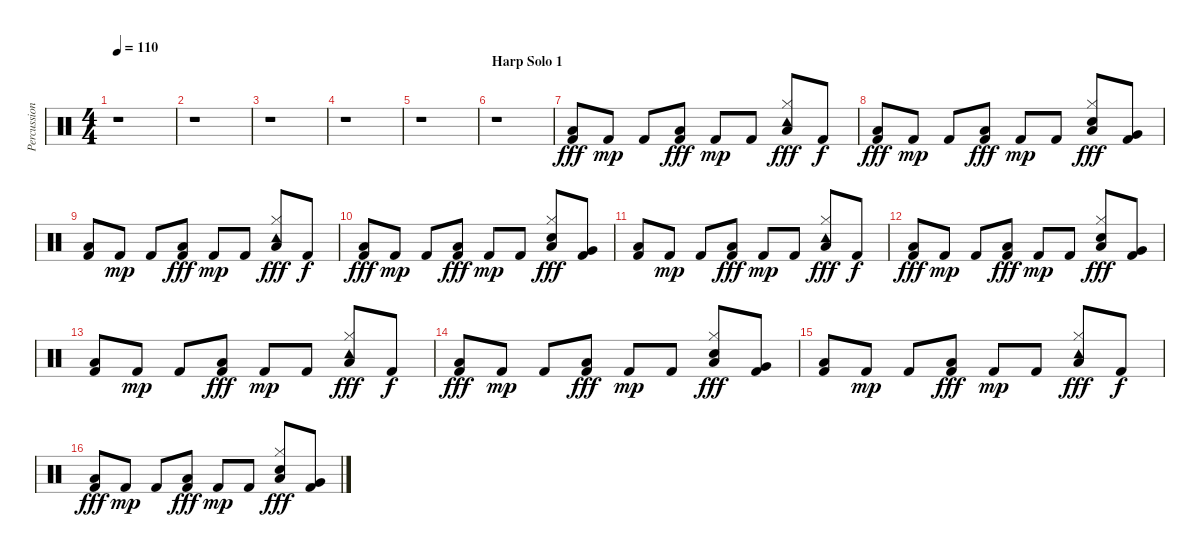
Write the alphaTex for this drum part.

\track ("Percussion" "Percussion") {instrument percussion}
\staff {score}
\articulation defaults
\ts (4 4)
\tempo 110
\clef neutral
\ks c
r.1{dy fff} |
r.1 |
r.1 |
r.1 |
r.1 |
\section ("" "Harp Solo 1")
r.1 |
("Low Floor Tom (hit)" "Kick (hit) 2").8 "Kick (hit) 2".8{dy mp} "Kick (hit) 2".8 ("Low Floor Tom (hit)" "Kick (hit) 2").8{dy fff} "Kick (hit) 2".8{dy mp} "Kick (hit) 2".8 ("Hi-Hat (closed)" "Low Floor Tom (hit)" "Tambourine (hit)").8{dy fff} "Kick (hit) 2".8{dy f} |
("Low Floor Tom (hit)" "Kick (hit) 2").8{dy fff} "Kick (hit) 2".8{dy mp} "Kick (hit) 2".8 ("Low Floor Tom (hit)" "Kick (hit) 2").8{dy fff} "Kick (hit) 2".8{dy mp} "Kick (hit) 2".8 ("Hi-Hat (closed)" "Low Floor Tom (hit)" "Snare (hit) 2").8{dy fff} ("Very Low Tom (hit)" "Kick (hit) 2").8 |
("Low Floor Tom (hit)" "Kick (hit) 2").8 "Kick (hit) 2".8{dy mp} "Kick (hit) 2".8 ("Low Floor Tom (hit)" "Kick (hit) 2").8{dy fff} "Kick (hit) 2".8{dy mp} "Kick (hit) 2".8 ("Hi-Hat (closed)" "Low Floor Tom (hit)" "Tambourine (hit)").8{dy fff} "Kick (hit) 2".8{dy f} |
("Low Floor Tom (hit)" "Kick (hit) 2").8{dy fff} "Kick (hit) 2".8{dy mp} "Kick (hit) 2".8 ("Low Floor Tom (hit)" "Kick (hit) 2").8{dy fff} "Kick (hit) 2".8{dy mp} "Kick (hit) 2".8 ("Hi-Hat (closed)" "Low Floor Tom (hit)" "Snare (hit) 2").8{dy fff} ("Very Low Tom (hit)" "Kick (hit) 2").8 |
("Low Floor Tom (hit)" "Kick (hit) 2").8 "Kick (hit) 2".8{dy mp} "Kick (hit) 2".8 ("Low Floor Tom (hit)" "Kick (hit) 2").8{dy fff} "Kick (hit) 2".8{dy mp} "Kick (hit) 2".8 ("Hi-Hat (closed)" "Low Floor Tom (hit)" "Tambourine (hit)").8{dy fff} "Kick (hit) 2".8{dy f} |
("Low Floor Tom (hit)" "Kick (hit) 2").8{dy fff} "Kick (hit) 2".8{dy mp} "Kick (hit) 2".8 ("Low Floor Tom (hit)" "Kick (hit) 2").8{dy fff} "Kick (hit) 2".8{dy mp} "Kick (hit) 2".8 ("Hi-Hat (closed)" "Low Floor Tom (hit)" "Snare (hit) 2").8{dy fff} ("Very Low Tom (hit)" "Kick (hit) 2").8 |
("Low Floor Tom (hit)" "Kick (hit) 2").8 "Kick (hit) 2".8{dy mp} "Kick (hit) 2".8 ("Low Floor Tom (hit)" "Kick (hit) 2").8{dy fff} "Kick (hit) 2".8{dy mp} "Kick (hit) 2".8 ("Hi-Hat (closed)" "Low Floor Tom (hit)" "Tambourine (hit)").8{dy fff} "Kick (hit) 2".8{dy f} |
("Low Floor Tom (hit)" "Kick (hit) 2").8{dy fff} "Kick (hit) 2".8{dy mp} "Kick (hit) 2".8 ("Low Floor Tom (hit)" "Kick (hit) 2").8{dy fff} "Kick (hit) 2".8{dy mp} "Kick (hit) 2".8 ("Hi-Hat (closed)" "Low Floor Tom (hit)" "Snare (hit) 2").8{dy fff} ("Very Low Tom (hit)" "Kick (hit) 2").8 |
("Low Floor Tom (hit)" "Kick (hit) 2").8 "Kick (hit) 2".8{dy mp} "Kick (hit) 2".8 ("Low Floor Tom (hit)" "Kick (hit) 2").8{dy fff} "Kick (hit) 2".8{dy mp} "Kick (hit) 2".8 ("Hi-Hat (closed)" "Low Floor Tom (hit)" "Tambourine (hit)").8{dy fff} "Kick (hit) 2".8{dy f} |
("Low Floor Tom (hit)" "Kick (hit) 2").8{dy fff} "Kick (hit) 2".8{dy mp} "Kick (hit) 2".8 ("Low Floor Tom (hit)" "Kick (hit) 2").8{dy fff} "Kick (hit) 2".8{dy mp} "Kick (hit) 2".8 ("Hi-Hat (closed)" "Low Floor Tom (hit)" "Snare (hit) 2").8{dy fff} ("Very Low Tom (hit)" "Kick (hit) 2").8
